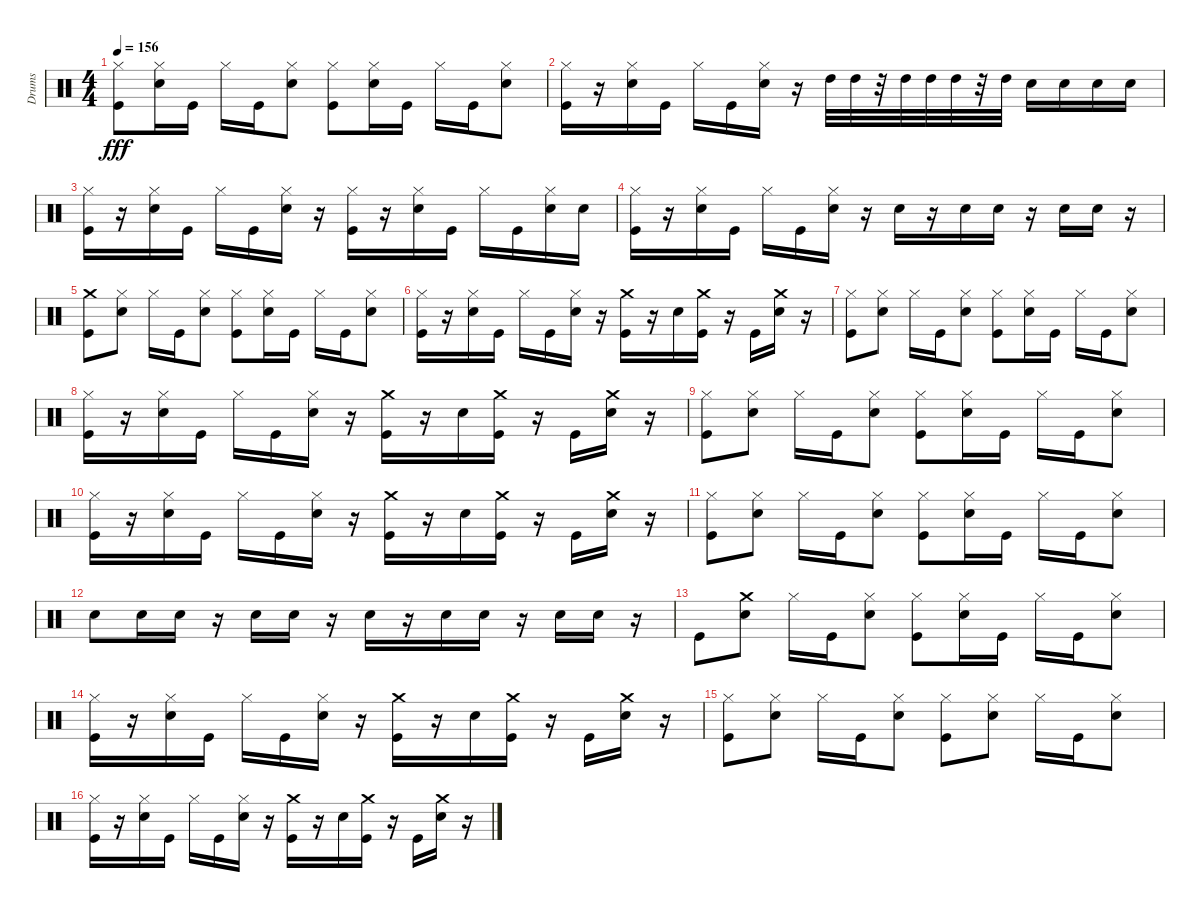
\track ("Drums" "Drums") {instrument percussion}
\staff {score}
\articulation defaults
\ts (4 4)
\tempo 156
\clef neutral
\ks c
("Hi-Hat (closed)" "Kick (hit)").8{dy fff} ("Snare (hit) 2" "Hi-Hat (closed)").16 "Kick (hit)".16 "Hi-Hat (closed)".16 "Kick (hit)".16 ("Snare (hit) 2" "Hi-Hat (closed)").8 ("Kick (hit)" "Hi-Hat (closed)").8 ("Snare (hit) 2" "Hi-Hat (closed)").16 "Kick (hit)".16 "Hi-Hat (closed)".16 "Kick (hit)".16 ("Snare (hit) 2" "Hi-Hat (closed)").8 |
("Hi-Hat (closed)" "Kick (hit)").16 r.16 ("Hi-Hat (closed)" "Snare (hit) 2").16 "Kick (hit)".16 "Hi-Hat (closed)".16 "Kick (hit)".16 ("Hi-Hat (closed)" "Snare (hit) 2").16 r.16 "High Tom (hit)".32 "High Tom (hit)".32 r.32 "High Tom (hit)".32 "High Tom (hit)".32 "High Tom (hit)".32 r.32 "High Tom (hit)".32 "Snare (hit) 2".16 "Snare (hit) 2".16 "Snare (hit) 2".16 "Snare (hit) 2".16 |
("Hi-Hat (closed)" "Kick (hit)").16 r.16 ("Hi-Hat (closed)" "Snare (hit) 2").16 "Kick (hit)".16 "Hi-Hat (closed)".16 "Kick (hit)".16 ("Hi-Hat (closed)" "Snare (hit) 2").16 r.16 ("Hi-Hat (closed)" "Kick (hit)").16 r.16 ("Hi-Hat (closed)" "Snare (hit) 2").16 "Kick (hit)".16 "Hi-Hat (closed)".16 "Kick (hit)".16 ("Hi-Hat (closed)" "Snare (hit) 2").16 "Snare (hit) 2".16 |
("Hi-Hat (closed)" "Kick (hit)").16 r.16 ("Hi-Hat (closed)" "Snare (hit) 2").16 "Kick (hit)".16 "Hi-Hat (closed)".16 "Kick (hit)".16 ("Hi-Hat (closed)" "Snare (hit) 2").16 r.16 "Snare (hit) 2".16 r.16 "Snare (hit) 2".16 "Snare (hit) 2".16 r.16 "Snare (hit) 2".16 "Snare (hit) 2".16 r.16 |
("Crash medium (hit)" "Kick (hit)").8 ("Snare (hit) 2" "Hi-Hat (closed)").8 "Hi-Hat (closed)".16 "Kick (hit)".16 ("Snare (hit) 2" "Hi-Hat (closed)").8 ("Kick (hit)" "Hi-Hat (closed)").8 ("Snare (hit) 2" "Hi-Hat (closed)").16 "Kick (hit)".16 "Hi-Hat (closed)".16 "Kick (hit)".16 ("Snare (hit) 2" "Hi-Hat (closed)").8 |
("Hi-Hat (closed)" "Kick (hit)").16 r.16 ("Hi-Hat (closed)" "Snare (hit) 2").16 "Kick (hit)".16 "Hi-Hat (closed)".16 "Kick (hit)".16 ("Hi-Hat (closed)" "Snare (hit) 2").16 r.16 ("Crash medium (hit)" "Kick (hit)").16 r.16 "Snare (hit) 2".16 ("Crash medium (hit)" "Kick (hit)").16 r.16 "Kick (hit)".16 ("Crash medium (hit)" "Snare (hit) 2").16 r.16 |
("Hi-Hat (closed)" "Kick (hit)").8 ("Snare (hit) 2" "Hi-Hat (closed)").8 "Hi-Hat (closed)".16 "Kick (hit)".16 ("Snare (hit) 2" "Hi-Hat (closed)").8 ("Kick (hit)" "Hi-Hat (closed)").8 ("Snare (hit) 2" "Hi-Hat (closed)").16 "Kick (hit)".16 "Hi-Hat (closed)".16 "Kick (hit)".16 ("Snare (hit) 2" "Hi-Hat (closed)").8 |
("Hi-Hat (closed)" "Kick (hit)").16 r.16 ("Hi-Hat (closed)" "Snare (hit) 2").16 "Kick (hit)".16 "Hi-Hat (closed)".16 "Kick (hit)".16 ("Hi-Hat (closed)" "Snare (hit) 2").16 r.16 ("Crash medium (hit)" "Kick (hit)").16 r.16 "Snare (hit) 2".16 ("Crash medium (hit)" "Kick (hit)").16 r.16 "Kick (hit)".16 ("Crash medium (hit)" "Snare (hit) 2").16 r.16 |
("Hi-Hat (closed)" "Kick (hit)").8 ("Snare (hit) 2" "Hi-Hat (closed)").8 "Hi-Hat (closed)".16 "Kick (hit)".16 ("Snare (hit) 2" "Hi-Hat (closed)").8 ("Kick (hit)" "Hi-Hat (closed)").8 ("Snare (hit) 2" "Hi-Hat (closed)").16 "Kick (hit)".16 "Hi-Hat (closed)".16 "Kick (hit)".16 ("Snare (hit) 2" "Hi-Hat (closed)").8 |
("Hi-Hat (closed)" "Kick (hit)").16 r.16 ("Hi-Hat (closed)" "Snare (hit) 2").16 "Kick (hit)".16 "Hi-Hat (closed)".16 "Kick (hit)".16 ("Hi-Hat (closed)" "Snare (hit) 2").16 r.16 ("Crash medium (hit)" "Kick (hit)").16 r.16 "Snare (hit) 2".16 ("Crash medium (hit)" "Kick (hit)").16 r.16 "Kick (hit)".16 ("Crash medium (hit)" "Snare (hit) 2").16 r.16 |
("Hi-Hat (closed)" "Kick (hit)").8 ("Snare (hit) 2" "Hi-Hat (closed)").8 "Hi-Hat (closed)".16 "Kick (hit)".16 ("Snare (hit) 2" "Hi-Hat (closed)").8 ("Kick (hit)" "Hi-Hat (closed)").8 ("Snare (hit) 2" "Hi-Hat (closed)").16 "Kick (hit)".16 "Hi-Hat (closed)".16 "Kick (hit)".16 ("Snare (hit) 2" "Hi-Hat (closed)").8 |
"Snare (hit) 2".8 "Snare (hit) 2".16 "Snare (hit) 2".16 r.16 "Snare (hit) 2".16 "Snare (hit) 2".16 r.16 "Snare (hit) 2".16 r.16 "Snare (hit) 2".16 "Snare (hit) 2".16 r.16 "Snare (hit) 2".16 "Snare (hit) 2".16 r.16 |
"Kick (hit)".8 ("Crash medium (hit)" "Snare (hit) 2").8 "Hi-Hat (closed)".16 "Kick (hit)".16 ("Snare (hit) 2" "Hi-Hat (closed)").8 ("Kick (hit)" "Hi-Hat (closed)").8 ("Snare (hit) 2" "Hi-Hat (closed)").16 "Kick (hit)".16 "Hi-Hat (closed)".16 "Kick (hit)".16 ("Snare (hit) 2" "Hi-Hat (closed)").8 |
("Hi-Hat (closed)" "Kick (hit)").16 r.16 ("Hi-Hat (closed)" "Snare (hit) 2").16 "Kick (hit)".16 "Hi-Hat (closed)".16 "Kick (hit)".16 ("Hi-Hat (closed)" "Snare (hit) 2").16 r.16 ("Crash medium (hit)" "Kick (hit)").16 r.16 "Snare (hit) 2".16 ("Crash medium (hit)" "Kick (hit)").16 r.16 "Kick (hit)".16 ("Crash medium (hit)" "Snare (hit) 2").16 r.16 |
("Hi-Hat (closed)" "Kick (hit)").8 ("Snare (hit) 2" "Hi-Hat (closed)").8 "Hi-Hat (closed)".16 "Kick (hit)".16 ("Snare (hit) 2" "Hi-Hat (closed)").8 ("Kick (hit)" "Hi-Hat (closed)").8 ("Snare (hit) 2" "Hi-Hat (closed)").8 "Hi-Hat (closed)".16 "Kick (hit)".16 ("Snare (hit) 2" "Hi-Hat (closed)").8 |
("Hi-Hat (closed)" "Kick (hit)").16 r.16 ("Hi-Hat (closed)" "Snare (hit) 2").16 "Kick (hit)".16 "Hi-Hat (closed)".16 "Kick (hit)".16 ("Hi-Hat (closed)" "Snare (hit) 2").16 r.16 ("Crash medium (hit)" "Kick (hit)").16 r.16 "Snare (hit) 2".16 ("Crash medium (hit)" "Kick (hit)").16 r.16 "Kick (hit)".16 ("Crash medium (hit)" "Snare (hit) 2").16 r.16
